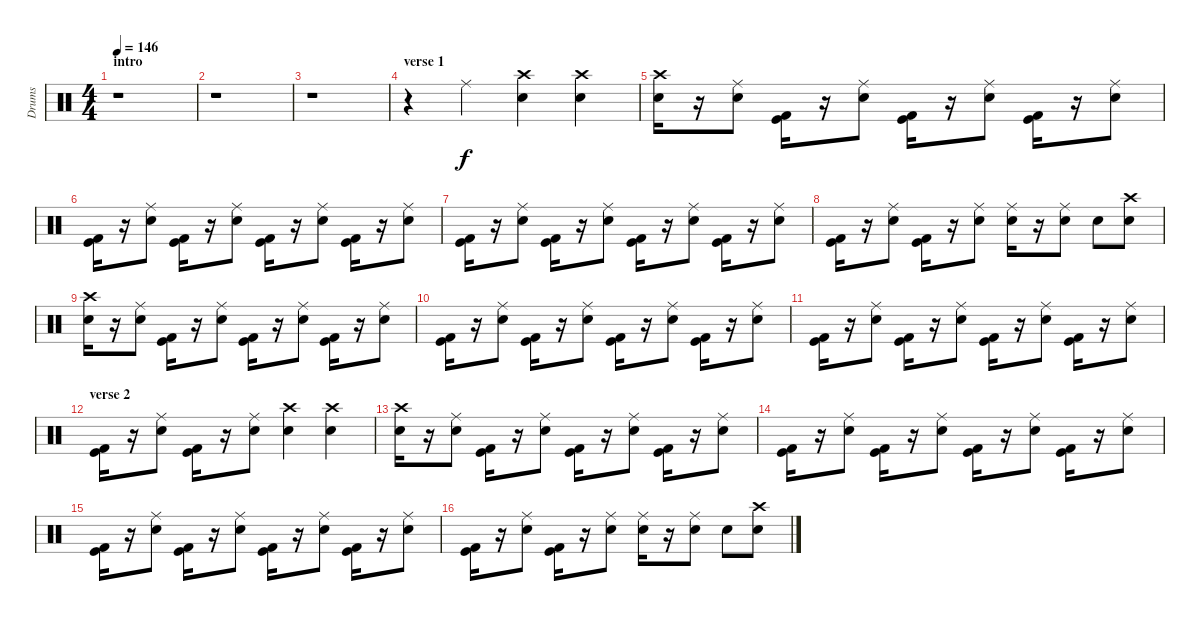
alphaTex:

\track ("Drums" "Drums") {instrument percussion}
\staff {score}
\articulation defaults
\ts (4 4)
\section ("" "intro")
\tempo 146
\clef neutral
\ks c
r.1{dy f} |
r.1 |
r.1 |
\section ("" "verse 1")
r.4 "Ride (middle)".4 ("Crash high (hit)" "Electric Snare (hit)").4 ("Crash high (hit)" "Electric Snare (hit)").4 |
("Crash high (hit)" "Electric Snare (hit)").16 r.16 ("Ride (middle)" "Electric Snare (hit)").8 ("Kick (hit)" "Kick (hit) 2").16 r.16 ("Ride (middle)" "Electric Snare (hit)").8 ("Kick (hit)" "Kick (hit) 2").16 r.16 ("Ride (middle)" "Electric Snare (hit)").8 ("Kick (hit)" "Kick (hit) 2").16 r.16 ("Ride (middle)" "Electric Snare (hit)").8 |
("Kick (hit)" "Kick (hit) 2").16 r.16 ("Ride (middle)" "Electric Snare (hit)").8 ("Kick (hit)" "Kick (hit) 2").16 r.16 ("Ride (middle)" "Electric Snare (hit)").8 ("Kick (hit)" "Kick (hit) 2").16 r.16 ("Ride (middle)" "Electric Snare (hit)").8 ("Kick (hit)" "Kick (hit) 2").16 r.16 ("Ride (middle)" "Electric Snare (hit)").8 |
("Kick (hit)" "Kick (hit) 2").16 r.16 ("Ride (middle)" "Electric Snare (hit)").8 ("Kick (hit)" "Kick (hit) 2").16 r.16 ("Ride (middle)" "Electric Snare (hit)").8 ("Kick (hit)" "Kick (hit) 2").16 r.16 ("Ride (middle)" "Electric Snare (hit)").8 ("Kick (hit)" "Kick (hit) 2").16 r.16 ("Ride (middle)" "Electric Snare (hit)").8 |
("Kick (hit)" "Kick (hit) 2").16 r.16 ("Ride (middle)" "Electric Snare (hit)").8 ("Kick (hit)" "Kick (hit) 2").16 r.16 ("Ride (middle)" "Electric Snare (hit)").8 ("Ride (middle)" "Electric Snare (hit)").16 r.16 ("Ride (middle)" "Electric Snare (hit)").8 "Electric Snare (hit)"{tr (40 16)}.8 ("Crash high (hit)" "Electric Snare (hit)").8 |
("Crash high (hit)" "Electric Snare (hit)").16 r.16 ("Ride (middle)" "Electric Snare (hit)").8 ("Kick (hit)" "Kick (hit) 2").16 r.16 ("Ride (middle)" "Electric Snare (hit)").8 ("Kick (hit)" "Kick (hit) 2").16 r.16 ("Ride (middle)" "Electric Snare (hit)").8 ("Kick (hit)" "Kick (hit) 2").16 r.16 ("Ride (middle)" "Electric Snare (hit)").8 |
("Kick (hit)" "Kick (hit) 2").16 r.16 ("Ride (middle)" "Electric Snare (hit)").8 ("Kick (hit)" "Kick (hit) 2").16 r.16 ("Ride (middle)" "Electric Snare (hit)").8 ("Kick (hit)" "Kick (hit) 2").16 r.16 ("Ride (middle)" "Electric Snare (hit)").8 ("Kick (hit)" "Kick (hit) 2").16 r.16 ("Ride (middle)" "Electric Snare (hit)").8 |
("Kick (hit)" "Kick (hit) 2").16 r.16 ("Ride (middle)" "Electric Snare (hit)").8 ("Kick (hit)" "Kick (hit) 2").16 r.16 ("Ride (middle)" "Electric Snare (hit)").8 ("Kick (hit)" "Kick (hit) 2").16 r.16 ("Ride (middle)" "Electric Snare (hit)").8 ("Kick (hit)" "Kick (hit) 2").16 r.16 ("Ride (middle)" "Electric Snare (hit)").8 |
\section ("" "verse 2")
("Kick (hit)" "Kick (hit) 2").16 r.16 ("Ride (middle)" "Electric Snare (hit)").8 ("Kick (hit)" "Kick (hit) 2").16 r.16 ("Ride (middle)" "Electric Snare (hit)").8 ("Crash high (hit)" "Electric Snare (hit)").4 ("Crash high (hit)" "Electric Snare (hit)").4 |
("Crash high (hit)" "Electric Snare (hit)").16 r.16 ("Ride (middle)" "Electric Snare (hit)").8 ("Kick (hit)" "Kick (hit) 2").16 r.16 ("Ride (middle)" "Electric Snare (hit)").8 ("Kick (hit)" "Kick (hit) 2").16 r.16 ("Ride (middle)" "Electric Snare (hit)").8 ("Kick (hit)" "Kick (hit) 2").16 r.16 ("Ride (middle)" "Electric Snare (hit)").8 |
("Kick (hit)" "Kick (hit) 2").16 r.16 ("Ride (middle)" "Electric Snare (hit)").8 ("Kick (hit)" "Kick (hit) 2").16 r.16 ("Ride (middle)" "Electric Snare (hit)").8 ("Kick (hit)" "Kick (hit) 2").16 r.16 ("Ride (middle)" "Electric Snare (hit)").8 ("Kick (hit)" "Kick (hit) 2").16 r.16 ("Ride (middle)" "Electric Snare (hit)").8 |
("Kick (hit)" "Kick (hit) 2").16 r.16 ("Ride (middle)" "Electric Snare (hit)").8 ("Kick (hit)" "Kick (hit) 2").16 r.16 ("Ride (middle)" "Electric Snare (hit)").8 ("Kick (hit)" "Kick (hit) 2").16 r.16 ("Ride (middle)" "Electric Snare (hit)").8 ("Kick (hit)" "Kick (hit) 2").16 r.16 ("Ride (middle)" "Electric Snare (hit)").8 |
("Kick (hit)" "Kick (hit) 2").16 r.16 ("Ride (middle)" "Electric Snare (hit)").8 ("Kick (hit)" "Kick (hit) 2").16 r.16 ("Ride (middle)" "Electric Snare (hit)").8 ("Ride (middle)" "Electric Snare (hit)").16 r.16 ("Ride (middle)" "Electric Snare (hit)").8 "Electric Snare (hit)"{tr (40 16)}.8 ("Crash high (hit)" "Electric Snare (hit)").8
